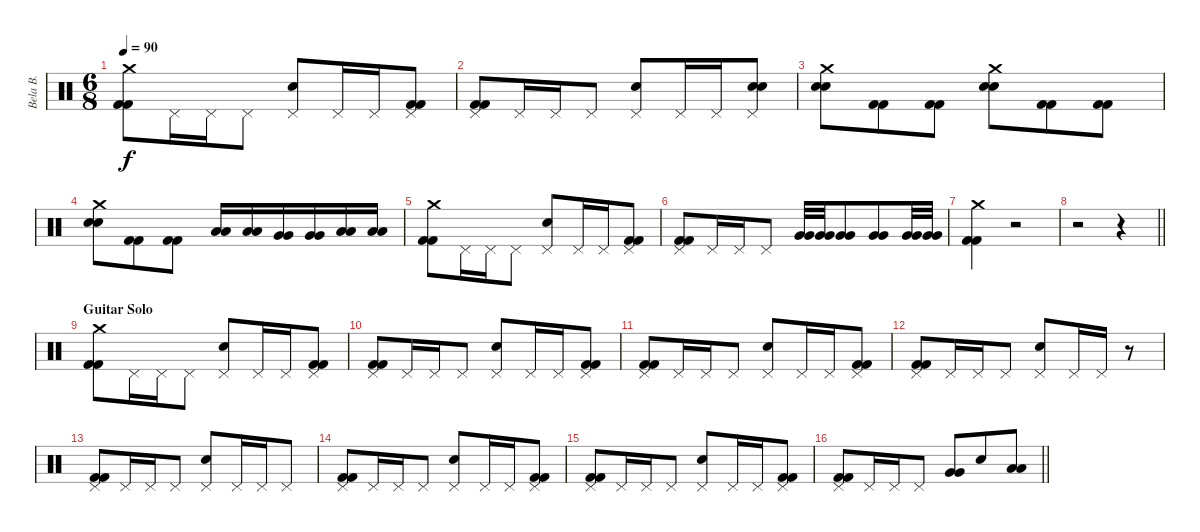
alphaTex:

\track ("Bela B." "Bela B.") {instrument percussion}
\staff {score}
\articulation defaults
\ts (6 8)
\tempo 90
\clef neutral
\ks aminor
("Crash medium (hit)" "Kick (hit) 2" "Kick (hit) 2").8{dy f} "Pedal Hi-Hat (hit)".16 "Pedal Hi-Hat (hit)".16 "Pedal Hi-Hat (hit)".8 ("Pedal Hi-Hat (hit)" "Snare (hit) 2").8 "Pedal Hi-Hat (hit)".16 "Pedal Hi-Hat (hit)".16 ("Pedal Hi-Hat (hit)" "Kick (hit) 2" "Kick (hit) 2").8 |
("Pedal Hi-Hat (hit)" "Kick (hit) 2" "Kick (hit) 2").8 "Pedal Hi-Hat (hit)".16 "Pedal Hi-Hat (hit)".16 "Pedal Hi-Hat (hit)".8 ("Pedal Hi-Hat (hit)" "Snare (hit) 2").8 "Pedal Hi-Hat (hit)".16 "Pedal Hi-Hat (hit)".16 ("Pedal Hi-Hat (hit)" "Electric Snare (hit)" "Snare (hit) 2").8 |
("Crash medium (hit)" "Electric Snare (hit)" "Snare (hit) 2").8 ("Kick (hit) 2" "Kick (hit) 2").8 ("Kick (hit) 2" "Kick (hit) 2").8 ("Crash medium (hit)" "Electric Snare (hit)" "Snare (hit) 2").8 ("Kick (hit) 2" "Kick (hit) 2").8 ("Kick (hit) 2" "Kick (hit) 2").8 |
("Crash medium (hit)" "Electric Snare (hit)" "Snare (hit) 2").8 ("Kick (hit) 2" "Kick (hit) 2").8 ("Kick (hit) 2" "Kick (hit) 2").8 ("Low Tom (hit)" "Low Tom (hit)").16 ("Low Tom (hit)" "Low Tom (hit)").16 ("Very Low Tom (hit)" "Very Low Tom (hit)").16 ("Very Low Tom (hit)" "Very Low Tom (hit)").16 ("Low Floor Tom (hit)" "Low Floor Tom (hit)").16 ("Low Floor Tom (hit)" "Low Floor Tom (hit)").16 |
("Crash medium (hit)" "Kick (hit) 2" "Kick (hit) 2").8 "Pedal Hi-Hat (hit)".16 "Pedal Hi-Hat (hit)".16 "Pedal Hi-Hat (hit)".8 ("Pedal Hi-Hat (hit)" "Snare (hit) 2").8 "Pedal Hi-Hat (hit)".16 "Pedal Hi-Hat (hit)".16 ("Pedal Hi-Hat (hit)" "Kick (hit) 2" "Kick (hit) 2").8 |
("Pedal Hi-Hat (hit)" "Kick (hit) 2" "Kick (hit) 2").8 "Pedal Hi-Hat (hit)".16 "Pedal Hi-Hat (hit)".16 "Pedal Hi-Hat (hit)".8 ("Very Low Tom (hit)" "Very Low Tom (hit)").32 ("Very Low Tom (hit)" "Very Low Tom (hit)").32 ("Very Low Tom (hit)" "Very Low Tom (hit)").8 ("Very Low Tom (hit)" "Very Low Tom (hit)").8 ("Very Low Tom (hit)" "Very Low Tom (hit)").32 ("Very Low Tom (hit)" "Very Low Tom (hit)").32 |
("Crash medium (hit)" "Kick (hit) 2" "Kick (hit) 2").4 r.2 |
\barLineRight lightlight
r.2 r.4 |
\section ("" "Guitar Solo")
("Crash medium (hit)" "Kick (hit) 2" "Kick (hit) 2").8 "Pedal Hi-Hat (hit)".16 "Pedal Hi-Hat (hit)".16 "Pedal Hi-Hat (hit)".8 ("Pedal Hi-Hat (hit)" "Snare (hit) 2").8 "Pedal Hi-Hat (hit)".16 "Pedal Hi-Hat (hit)".16 ("Pedal Hi-Hat (hit)" "Kick (hit) 2" "Kick (hit) 2").8 |
("Pedal Hi-Hat (hit)" "Kick (hit) 2" "Kick (hit) 2").8 "Pedal Hi-Hat (hit)".16 "Pedal Hi-Hat (hit)".16 "Pedal Hi-Hat (hit)".8 ("Pedal Hi-Hat (hit)" "Snare (hit) 2").8 "Pedal Hi-Hat (hit)".16 "Pedal Hi-Hat (hit)".16 ("Pedal Hi-Hat (hit)" "Kick (hit) 2" "Kick (hit) 2").8 |
("Pedal Hi-Hat (hit)" "Kick (hit) 2" "Kick (hit) 2").8 "Pedal Hi-Hat (hit)".16 "Pedal Hi-Hat (hit)".16 "Pedal Hi-Hat (hit)".8 ("Pedal Hi-Hat (hit)" "Snare (hit) 2").8 "Pedal Hi-Hat (hit)".16 "Pedal Hi-Hat (hit)".16 ("Pedal Hi-Hat (hit)" "Kick (hit) 2" "Kick (hit) 2").8 |
("Pedal Hi-Hat (hit)" "Kick (hit) 2" "Kick (hit) 2").8 "Pedal Hi-Hat (hit)".16 "Pedal Hi-Hat (hit)".16 "Pedal Hi-Hat (hit)".8 ("Pedal Hi-Hat (hit)" "Snare (hit) 2").8 "Pedal Hi-Hat (hit)".16 "Pedal Hi-Hat (hit)".16 r.8 |
("Pedal Hi-Hat (hit)" "Kick (hit) 2" "Kick (hit) 2").8 "Pedal Hi-Hat (hit)".16 "Pedal Hi-Hat (hit)".16 "Pedal Hi-Hat (hit)".8 ("Pedal Hi-Hat (hit)" "Snare (hit) 2").8 "Pedal Hi-Hat (hit)".16 "Pedal Hi-Hat (hit)".16 "Pedal Hi-Hat (hit)".8 |
("Pedal Hi-Hat (hit)" "Kick (hit) 2" "Kick (hit) 2").8 "Pedal Hi-Hat (hit)".16 "Pedal Hi-Hat (hit)".16 "Pedal Hi-Hat (hit)".8 ("Pedal Hi-Hat (hit)" "Snare (hit) 2").8 "Pedal Hi-Hat (hit)".16 "Pedal Hi-Hat (hit)".16 ("Pedal Hi-Hat (hit)" "Kick (hit) 2" "Kick (hit) 2").8 |
("Pedal Hi-Hat (hit)" "Kick (hit) 2" "Kick (hit) 2").8 "Pedal Hi-Hat (hit)".16 "Pedal Hi-Hat (hit)".16 "Pedal Hi-Hat (hit)".8 ("Pedal Hi-Hat (hit)" "Snare (hit) 2").8 "Pedal Hi-Hat (hit)".16 "Pedal Hi-Hat (hit)".16 ("Pedal Hi-Hat (hit)" "Kick (hit) 2" "Kick (hit) 2").8 |
\barLineRight lightlight
("Pedal Hi-Hat (hit)" "Kick (hit) 2" "Kick (hit) 2").8 "Pedal Hi-Hat (hit)".16 "Pedal Hi-Hat (hit)".16 "Pedal Hi-Hat (hit)".8 ("Very Low Tom (hit)" "Very Low Tom (hit)").8 "Snare (hit) 2".8 ("Low Tom (hit)" "Low Tom (hit)").8
